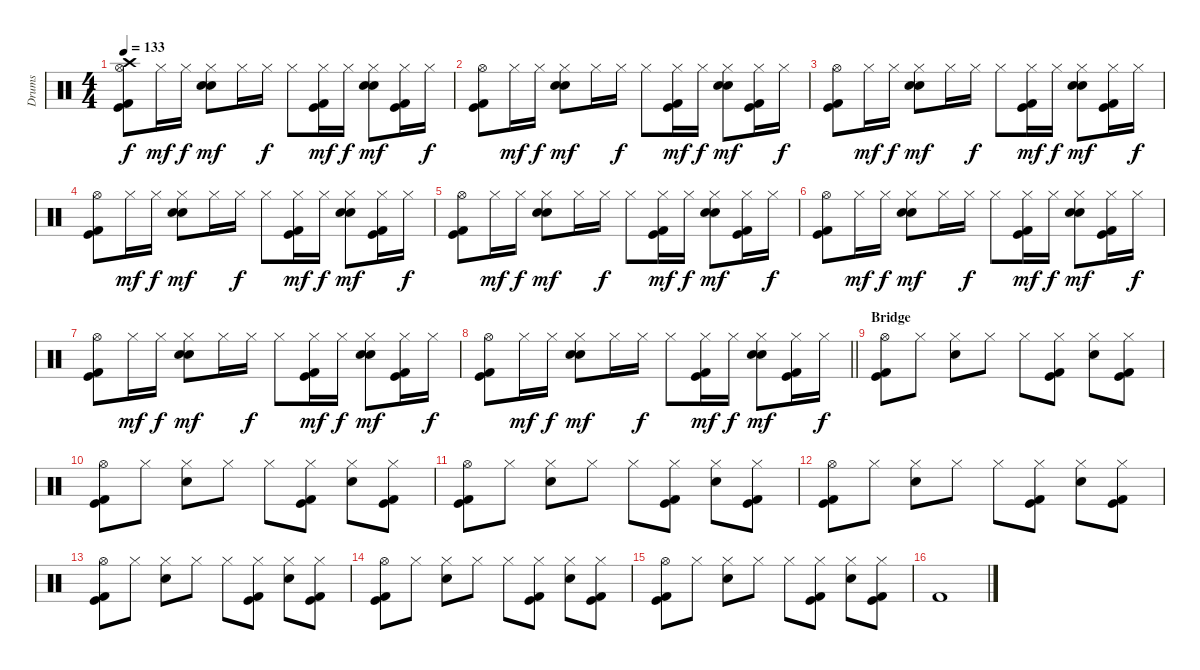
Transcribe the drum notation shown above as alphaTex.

\track ("Drums" "Drums") {instrument percussion}
\staff {score}
\articulation defaults
\ts (4 4)
\tempo 133
\clef neutral
\ks c
("Crash high (hit)" "Hi-Hat (open)" "Kick (hit)" "Kick (hit) 2").8{dy f} "Hi-Hat (closed)".16{dy mf} "Hi-Hat (closed)".16{dy f} ("Hi-Hat (closed)" "Snare (hit) 2" "Hand Clap (hit)").8{dy mf} "Hi-Hat (closed)".16 "Hi-Hat (closed)".16{dy f} "Hi-Hat (closed)".8 ("Hi-Hat (closed)" "Kick (hit)" "Kick (hit) 2").16{dy mf} "Hi-Hat (closed)".16{dy f} ("Hi-Hat (closed)" "Snare (hit) 2" "Hand Clap (hit)").8{dy mf} ("Hi-Hat (closed)" "Kick (hit)" "Kick (hit) 2").16 "Hi-Hat (closed)".16{dy f} |
("Hi-Hat (open)" "Kick (hit)" "Kick (hit) 2").8 "Hi-Hat (closed)".16{dy mf} "Hi-Hat (closed)".16{dy f} ("Hi-Hat (closed)" "Snare (hit) 2" "Hand Clap (hit)").8{dy mf} "Hi-Hat (closed)".16 "Hi-Hat (closed)".16{dy f} "Hi-Hat (closed)".8 ("Hi-Hat (closed)" "Kick (hit)" "Kick (hit) 2").16{dy mf} "Hi-Hat (closed)".16{dy f} ("Hi-Hat (closed)" "Snare (hit) 2" "Hand Clap (hit)").8{dy mf} ("Hi-Hat (closed)" "Kick (hit)" "Kick (hit) 2").16 "Hi-Hat (closed)".16{dy f} |
("Hi-Hat (open)" "Kick (hit)" "Kick (hit) 2").8 "Hi-Hat (closed)".16{dy mf} "Hi-Hat (closed)".16{dy f} ("Hi-Hat (closed)" "Snare (hit) 2" "Hand Clap (hit)").8{dy mf} "Hi-Hat (closed)".16 "Hi-Hat (closed)".16{dy f} "Hi-Hat (closed)".8 ("Hi-Hat (closed)" "Kick (hit)" "Kick (hit) 2").16{dy mf} "Hi-Hat (closed)".16{dy f} ("Hi-Hat (closed)" "Snare (hit) 2" "Hand Clap (hit)").8{dy mf} ("Hi-Hat (closed)" "Kick (hit)" "Kick (hit) 2").16 "Hi-Hat (closed)".16{dy f} |
("Hi-Hat (open)" "Kick (hit)" "Kick (hit) 2").8 "Hi-Hat (closed)".16{dy mf} "Hi-Hat (closed)".16{dy f} ("Hi-Hat (closed)" "Snare (hit) 2" "Hand Clap (hit)").8{dy mf} "Hi-Hat (closed)".16 "Hi-Hat (closed)".16{dy f} "Hi-Hat (closed)".8 ("Hi-Hat (closed)" "Kick (hit)" "Kick (hit) 2").16{dy mf} "Hi-Hat (closed)".16{dy f} ("Hi-Hat (closed)" "Snare (hit) 2" "Hand Clap (hit)").8{dy mf} ("Hi-Hat (closed)" "Kick (hit)" "Kick (hit) 2").16 "Hi-Hat (closed)".16{dy f} |
("Hi-Hat (open)" "Kick (hit)" "Kick (hit) 2").8 "Hi-Hat (closed)".16{dy mf} "Hi-Hat (closed)".16{dy f} ("Hi-Hat (closed)" "Snare (hit) 2" "Hand Clap (hit)").8{dy mf} "Hi-Hat (closed)".16 "Hi-Hat (closed)".16{dy f} "Hi-Hat (closed)".8 ("Hi-Hat (closed)" "Kick (hit)" "Kick (hit) 2").16{dy mf} "Hi-Hat (closed)".16{dy f} ("Hi-Hat (closed)" "Snare (hit) 2" "Hand Clap (hit)").8{dy mf} ("Hi-Hat (closed)" "Kick (hit)" "Kick (hit) 2").16 "Hi-Hat (closed)".16{dy f} |
("Hi-Hat (open)" "Kick (hit)" "Kick (hit) 2").8 "Hi-Hat (closed)".16{dy mf} "Hi-Hat (closed)".16{dy f} ("Hi-Hat (closed)" "Snare (hit) 2" "Hand Clap (hit)").8{dy mf} "Hi-Hat (closed)".16 "Hi-Hat (closed)".16{dy f} "Hi-Hat (closed)".8 ("Hi-Hat (closed)" "Kick (hit)" "Kick (hit) 2").16{dy mf} "Hi-Hat (closed)".16{dy f} ("Hi-Hat (closed)" "Snare (hit) 2" "Hand Clap (hit)").8{dy mf} ("Hi-Hat (closed)" "Kick (hit)" "Kick (hit) 2").16 "Hi-Hat (closed)".16{dy f} |
("Hi-Hat (open)" "Kick (hit)" "Kick (hit) 2").8 "Hi-Hat (closed)".16{dy mf} "Hi-Hat (closed)".16{dy f} ("Hi-Hat (closed)" "Snare (hit) 2" "Hand Clap (hit)").8{dy mf} "Hi-Hat (closed)".16 "Hi-Hat (closed)".16{dy f} "Hi-Hat (closed)".8 ("Hi-Hat (closed)" "Kick (hit)" "Kick (hit) 2").16{dy mf} "Hi-Hat (closed)".16{dy f} ("Hi-Hat (closed)" "Snare (hit) 2" "Hand Clap (hit)").8{dy mf} ("Hi-Hat (closed)" "Kick (hit)" "Kick (hit) 2").16 "Hi-Hat (closed)".16{dy f} |
\barLineRight lightlight
("Hi-Hat (open)" "Kick (hit)" "Kick (hit) 2").8 "Hi-Hat (closed)".16{dy mf} "Hi-Hat (closed)".16{dy f} ("Hi-Hat (closed)" "Snare (hit) 2" "Hand Clap (hit)").8{dy mf} "Hi-Hat (closed)".16 "Hi-Hat (closed)".16{dy f} "Hi-Hat (closed)".8 ("Hi-Hat (closed)" "Kick (hit)" "Kick (hit) 2").16{dy mf} "Hi-Hat (closed)".16{dy f} ("Hi-Hat (closed)" "Snare (hit) 2" "Hand Clap (hit)").8{dy mf} ("Hi-Hat (closed)" "Kick (hit)" "Kick (hit) 2").16 "Hi-Hat (closed)".16{dy f} |
\section ("" "Bridge")
("Hi-Hat (open)" "Kick (hit)" "Kick (hit) 2").8 "Hi-Hat (closed)".8 ("Hi-Hat (closed)" "Snare (hit) 2").8 "Hi-Hat (closed)".8 "Hi-Hat (closed)".8 ("Hi-Hat (closed)" "Kick (hit)" "Kick (hit) 2").8 ("Hi-Hat (closed)" "Snare (hit) 2").8 ("Hi-Hat (closed)" "Kick (hit)" "Kick (hit) 2").8 |
("Hi-Hat (open)" "Kick (hit)" "Kick (hit) 2").8 "Hi-Hat (closed)".8 ("Hi-Hat (closed)" "Snare (hit) 2").8 "Hi-Hat (closed)".8 "Hi-Hat (closed)".8 ("Hi-Hat (closed)" "Kick (hit)" "Kick (hit) 2").8 ("Hi-Hat (closed)" "Snare (hit) 2").8 ("Hi-Hat (closed)" "Kick (hit)" "Kick (hit) 2").8 |
("Hi-Hat (open)" "Kick (hit)" "Kick (hit) 2").8 "Hi-Hat (closed)".8 ("Hi-Hat (closed)" "Snare (hit) 2").8 "Hi-Hat (closed)".8 "Hi-Hat (closed)".8 ("Hi-Hat (closed)" "Kick (hit)" "Kick (hit) 2").8 ("Hi-Hat (closed)" "Snare (hit) 2").8 ("Hi-Hat (closed)" "Kick (hit)" "Kick (hit) 2").8 |
("Hi-Hat (open)" "Kick (hit)" "Kick (hit) 2").8 "Hi-Hat (closed)".8 ("Hi-Hat (closed)" "Snare (hit) 2").8 "Hi-Hat (closed)".8 "Hi-Hat (closed)".8 ("Hi-Hat (closed)" "Kick (hit)" "Kick (hit) 2").8 ("Hi-Hat (closed)" "Snare (hit) 2").8 ("Hi-Hat (closed)" "Kick (hit)" "Kick (hit) 2").8 |
("Hi-Hat (open)" "Kick (hit)" "Kick (hit) 2").8 "Hi-Hat (closed)".8 ("Hi-Hat (closed)" "Snare (hit) 2").8 "Hi-Hat (closed)".8 "Hi-Hat (closed)".8 ("Hi-Hat (closed)" "Kick (hit)" "Kick (hit) 2").8 ("Hi-Hat (closed)" "Snare (hit) 2").8 ("Hi-Hat (closed)" "Kick (hit)" "Kick (hit) 2").8 |
("Hi-Hat (open)" "Kick (hit)" "Kick (hit) 2").8 "Hi-Hat (closed)".8 ("Hi-Hat (closed)" "Snare (hit) 2").8 "Hi-Hat (closed)".8 "Hi-Hat (closed)".8 ("Hi-Hat (closed)" "Kick (hit)" "Kick (hit) 2").8 ("Hi-Hat (closed)" "Snare (hit) 2").8 ("Hi-Hat (closed)" "Kick (hit)" "Kick (hit) 2").8 |
("Hi-Hat (open)" "Kick (hit)" "Kick (hit) 2").8 "Hi-Hat (closed)".8 ("Hi-Hat (closed)" "Snare (hit) 2").8 "Hi-Hat (closed)".8 "Hi-Hat (closed)".8 ("Hi-Hat (closed)" "Kick (hit)" "Kick (hit) 2").8 ("Hi-Hat (closed)" "Snare (hit) 2").8 ("Hi-Hat (closed)" "Kick (hit)" "Kick (hit) 2").8 |
"Kick (hit) 2".1
